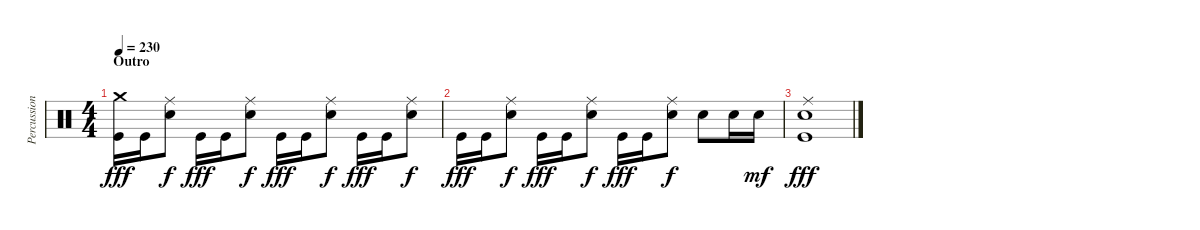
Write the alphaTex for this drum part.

\track ("Percussion" "Percussion") {instrument percussion}
\staff {score}
\articulation defaults
\ts (4 4)
\section ("" "Outro")
\tempo 230
\clef neutral
\ks c
("Crash medium (hit)" "Kick (hit)").16{dy fff} "Kick (hit)".16 ("Ride (middle)" "Electric Snare (hit)").8{dy f} "Kick (hit)".16{dy fff} "Kick (hit)".16 ("Ride (middle)" "Electric Snare (hit)").8{dy f} "Kick (hit)".16{dy fff} "Kick (hit)".16 ("Ride (middle)" "Electric Snare (hit)").8{dy f} "Kick (hit)".16{dy fff} "Kick (hit)".16 ("Ride (middle)" "Electric Snare (hit)").8{dy f} |
"Kick (hit)".16{dy fff} "Kick (hit)".16 ("Ride (middle)" "Electric Snare (hit)").8{dy f} "Kick (hit)".16{dy fff} "Kick (hit)".16 ("Ride (middle)" "Electric Snare (hit)").8{dy f} "Kick (hit)".16{dy fff} "Kick (hit)".16 ("Ride (middle)" "Electric Snare (hit)").8{dy f} "Electric Snare (hit)".8 "Electric Snare (hit)".16 "Electric Snare (hit)".16{dy mf} |
("Ride (middle)" "Electric Snare (hit)" "Kick (hit)").1{dy fff}
